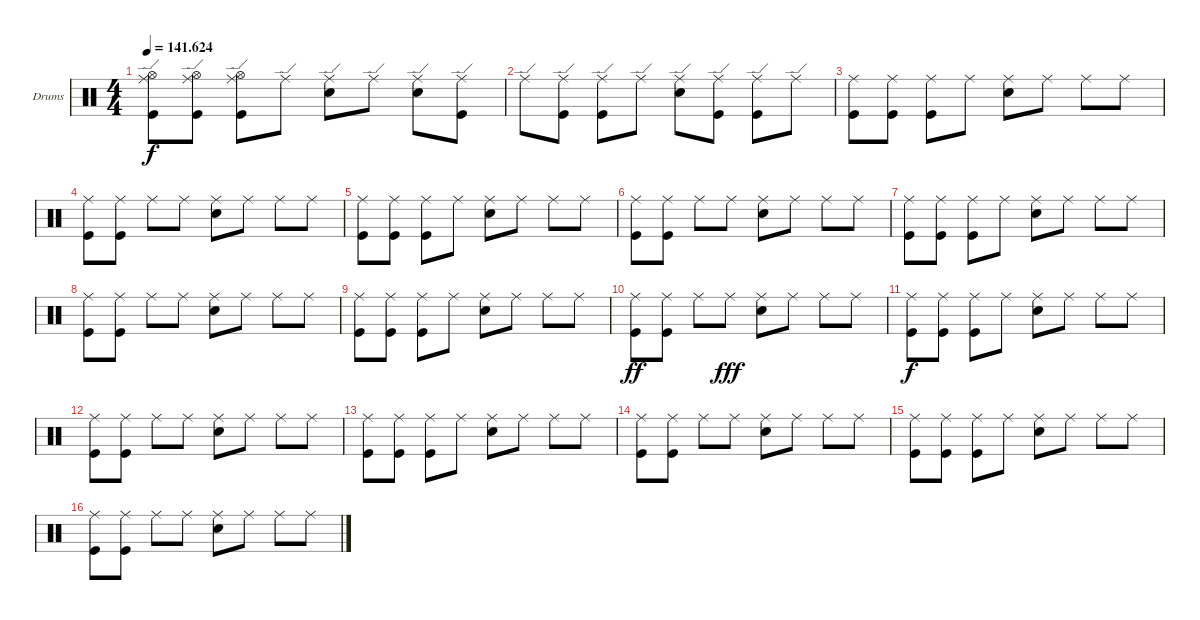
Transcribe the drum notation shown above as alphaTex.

\defaultSystemsLayout 4
\bracketExtendMode groupsimilarinstruments
\firstSystemTrackNameOrientation horizontal
\otherSystemsTrackNameOrientation horizontal
\track ("Drumkit" "Drums") {instrument percussion}
\staff {score}
\articulation defaults
\ts (4 4)
\tempo
141.624
\accidentals auto
\clef neutral
\ottava regular
\simile none
\ks c
("Hi-Hat (open)" "Kick (hit)" "Ride (edge)").8{dy f} ("Hi-Hat (open)" "Kick (hit)" "Ride (edge)").8 ("Hi-Hat (open)" "Kick (hit)" "Ride (edge)").8 "Ride (edge)".8 ("Ride (edge)" "Snare (hit) 2").8 "Ride (edge)".8 ("Ride (edge)" "Snare (hit) 2").8 ("Ride (edge)" "Kick (hit)").8 |
"Ride (edge)".8 ("Kick (hit)" "Ride (edge)").8 ("Ride (edge)" "Kick (hit)").8 "Ride (edge)".8 ("Ride (edge)" "Snare (hit) 2").8 ("Kick (hit)" "Ride (edge)").8 ("Ride (edge)" "Kick (hit)").8 "Ride (edge)".8 |
("Ride (middle)" "Kick (hit)").8 ("Ride (middle)" "Kick (hit)").8 ("Ride (middle)" "Kick (hit)").8 "Ride (middle)".8 ("Ride (middle)" "Snare (hit) 2").8 "Ride (middle)".8 "Ride (middle)".8 "Ride (middle)".8 |
("Ride (middle)" "Kick (hit)").8 ("Ride (middle)" "Kick (hit)").8 "Ride (middle)".8 "Ride (middle)".8 ("Ride (middle)" "Snare (hit) 2").8 "Ride (middle)".8 "Ride (middle)".8 "Ride (middle)".8 |
("Ride (middle)" "Kick (hit)").8 ("Ride (middle)" "Kick (hit)").8 ("Ride (middle)" "Kick (hit)").8 "Ride (middle)".8 ("Ride (middle)" "Snare (hit) 2").8 "Ride (middle)".8 "Ride (middle)".8 "Ride (middle)".8 |
("Ride (middle)" "Kick (hit)").8 ("Ride (middle)" "Kick (hit)").8 "Ride (middle)".8 "Ride (middle)".8 ("Ride (middle)" "Snare (hit) 2").8 "Ride (middle)".8 "Ride (middle)".8 "Ride (middle)".8 |
("Ride (middle)" "Kick (hit)").8 ("Ride (middle)" "Kick (hit)").8 ("Ride (middle)" "Kick (hit)").8 "Ride (middle)".8 ("Ride (middle)" "Snare (hit) 2").8 "Ride (middle)".8 "Ride (middle)".8 "Ride (middle)".8 |
("Ride (middle)" "Kick (hit)").8 ("Ride (middle)" "Kick (hit)").8 "Ride (middle)".8 "Ride (middle)".8 ("Ride (middle)" "Snare (hit) 2").8 "Ride (middle)".8 "Ride (middle)".8 "Ride (middle)".8 |
("Ride (middle)" "Kick (hit)").8 ("Ride (middle)" "Kick (hit)").8 ("Ride (middle)" "Kick (hit)").8 "Ride (middle)".8 ("Ride (middle)" "Snare (hit) 2").8 "Ride (middle)".8 "Ride (middle)".8 "Ride (middle)".8 |
("Ride (middle)" "Kick (hit)").8{dy ff} ("Ride (middle)" "Kick (hit)").8 "Ride (middle)".8 "Ride (middle)".8{dy fff} ("Ride (middle)" "Snare (hit) 2").8 "Ride (middle)".8 "Ride (middle)".8 "Ride (middle)".8 |
("Ride (middle)" "Kick (hit)").8{dy f} ("Ride (middle)" "Kick (hit)").8 ("Ride (middle)" "Kick (hit)").8 "Ride (middle)".8 ("Ride (middle)" "Snare (hit) 2").8 "Ride (middle)".8 "Ride (middle)".8 "Ride (middle)".8 |
("Ride (middle)" "Kick (hit)").8 ("Ride (middle)" "Kick (hit)").8 "Ride (middle)".8 "Ride (middle)".8 ("Ride (middle)" "Snare (hit) 2").8 "Ride (middle)".8 "Ride (middle)".8 "Ride (middle)".8 |
("Ride (middle)" "Kick (hit)").8 ("Ride (middle)" "Kick (hit)").8 ("Ride (middle)" "Kick (hit)").8 "Ride (middle)".8 ("Ride (middle)" "Snare (hit) 2").8 "Ride (middle)".8 "Ride (middle)".8 "Ride (middle)".8 |
("Ride (middle)" "Kick (hit)").8 ("Ride (middle)" "Kick (hit)").8 "Ride (middle)".8 "Ride (middle)".8 ("Ride (middle)" "Snare (hit) 2").8 "Ride (middle)".8 "Ride (middle)".8 "Ride (middle)".8 |
("Ride (middle)" "Kick (hit)").8 ("Ride (middle)" "Kick (hit)").8 ("Ride (middle)" "Kick (hit)").8 "Ride (middle)".8 ("Ride (middle)" "Snare (hit) 2").8 "Ride (middle)".8 "Ride (middle)".8 "Ride (middle)".8 |
("Ride (middle)" "Kick (hit)").8 ("Ride (middle)" "Kick (hit)").8 "Ride (middle)".8 "Ride (middle)".8 ("Ride (middle)" "Snare (hit) 2").8 "Ride (middle)".8 "Ride (middle)".8 "Ride (middle)".8
